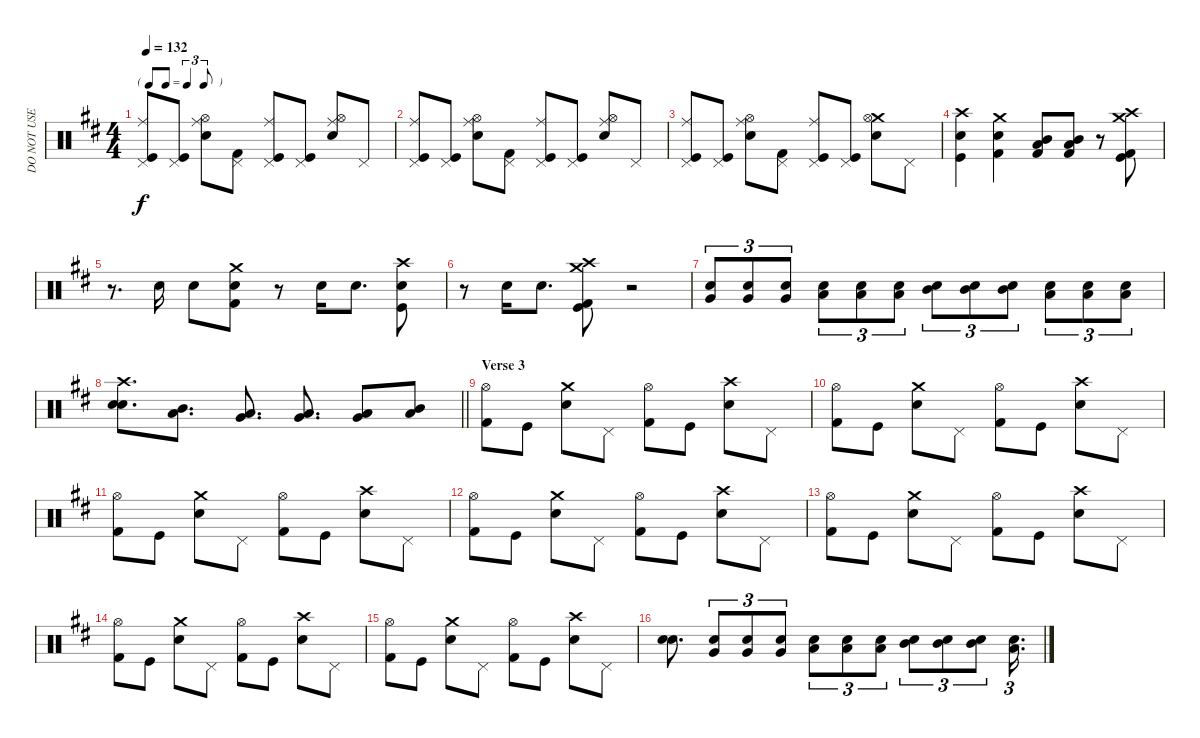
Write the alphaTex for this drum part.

\track ("DO NOT USE" "DO NOT USE") {solo instrument percussion}
\staff {score}
\articulation defaults
\ts (4 4)
\tf triplet8th
\tempo 132
\clef neutral
\ks d
("Ride (middle)" "Kick (hit)" "Pedal Hi-Hat (hit)").8{dy f} ("Kick (hit)" "Pedal Hi-Hat (hit)").8 ("Ride (middle)" "Snare (hit) 2" "Hi-Hat (open)").8 ("Kick (hit) 2" "Pedal Hi-Hat (hit)").8 ("Ride (middle)" "Kick (hit)" "Pedal Hi-Hat (hit)").8 ("Kick (hit)" "Pedal Hi-Hat (hit)").8 ("Ride (middle)" "Electric Snare (hit)" "Hi-Hat (open)").8 "Pedal Hi-Hat (hit)".8 |
("Ride (middle)" "Kick (hit)" "Pedal Hi-Hat (hit)").8 ("Kick (hit)" "Pedal Hi-Hat (hit)").8 ("Ride (middle)" "Snare (hit) 2" "Hi-Hat (open)").8 ("Kick (hit) 2" "Pedal Hi-Hat (hit)").8 ("Ride (middle)" "Kick (hit)" "Pedal Hi-Hat (hit)").8 ("Kick (hit)" "Pedal Hi-Hat (hit)").8 ("Ride (middle)" "Electric Snare (hit)" "Hi-Hat (open)").8 "Pedal Hi-Hat (hit)".8 |
("Ride (middle)" "Kick (hit)" "Pedal Hi-Hat (hit)").8 ("Kick (hit)" "Pedal Hi-Hat (hit)").8 ("Ride (middle)" "Snare (hit) 2" "Hi-Hat (open)").8 ("Kick (hit) 2" "Pedal Hi-Hat (hit)").8 ("Ride (middle)" "Kick (hit)" "Pedal Hi-Hat (hit)").8 ("Kick (hit)" "Pedal Hi-Hat (hit)").8 ("Crash medium (hit)" "Electric Snare (hit)" "Hi-Hat (open)").8 "Pedal Hi-Hat (hit)".8 |
("Crash high (hit)" "Snare (hit) 2" "Kick (hit)").4 ("Crash medium (hit)" "Electric Snare (hit)" "Kick (hit) 2").4 ("Kick (hit) 2" "Mid Tom (hit)" "Low Tom (hit)").8 ("Kick (hit) 2" "Mid Tom (hit)" "Low Tom (hit)").8 r.8 ("Kick (hit)" "Crash high (hit)" "Crash medium (hit)" "Kick (hit) 2").8 |
r.8{d} "Electric Snare (hit)".16 "Snare (hit) 2".8 ("Snare (hit) 2" "Kick (hit) 2" "Crash medium (hit)").8 r.8 "Electric Snare (hit)".16 "Snare (hit) 2".8{d} ("Electric Snare (hit)" "Kick (hit)" "Crash high (hit)").8 |
r.8 "Electric Snare (hit)".16 "Snare (hit) 2".8{d} ("Crash high (hit)" "Crash medium (hit)" "Kick (hit) 2" "Kick (hit)").8 r.2 |
("Electric Snare (hit)" "Very Low Tom (hit)").8{tu (3 2)} ("Electric Snare (hit)" "Very Low Tom (hit)").8{tu (3 2)} ("Electric Snare (hit)" "Very Low Tom (hit)").8{tu (3 2)} ("Snare (hit) 2" "Low Tom (hit)").8{tu (3 2)} ("Snare (hit) 2" "Low Tom (hit)").8{tu (3 2)} ("Snare (hit) 2" "Low Tom (hit)").8{tu (3 2)} ("Electric Snare (hit)" "Mid Tom (hit)").8{tu (3 2)} ("Electric Snare (hit)" "Mid Tom (hit)").8{tu (3 2)} ("Electric Snare (hit)" "Mid Tom (hit)").8{tu (3 2)} ("Electric Snare (hit)" "Low Floor Tom (hit)").8{tu (3 2)} ("Electric Snare (hit)" "Low Floor Tom (hit)").8{tu (3 2)} ("Electric Snare (hit)" "Low Floor Tom (hit)").8{tu (3 2)} |
\barLineRight lightlight
("Crash high (hit)" "Snare (hit) 2" "Electric Snare (hit)").8{d} ("Low Tom (hit)" "Mid Tom (hit)").8{d} ("Very Low Tom (hit)" "Low Tom (hit)").8{d} ("Low Tom (hit)" "Very Low Tom (hit)").8{d} ("Low Tom (hit)" "Very Low Tom (hit)").8 ("Mid Tom (hit)" "Low Floor Tom (hit)").8 |
\section ("" "Verse 3")
("Hi-Hat (open)" "Kick (hit) 2").8 "Kick (hit)".8 ("Crash medium (hit)" "Electric Snare (hit)").8 "Pedal Hi-Hat (hit)".8 ("Hi-Hat (open)" "Kick (hit) 2").8 "Kick (hit)".8 ("Crash high (hit)" "Electric Snare (hit)").8 "Pedal Hi-Hat (hit)".8 |
("Hi-Hat (open)" "Kick (hit) 2").8 "Kick (hit)".8 ("Crash medium (hit)" "Electric Snare (hit)").8 "Pedal Hi-Hat (hit)".8 ("Hi-Hat (open)" "Kick (hit) 2").8 "Kick (hit)".8 ("Crash high (hit)" "Electric Snare (hit)").8 "Pedal Hi-Hat (hit)".8 |
("Hi-Hat (open)" "Kick (hit) 2").8 "Kick (hit)".8 ("Crash medium (hit)" "Electric Snare (hit)").8 "Pedal Hi-Hat (hit)".8 ("Hi-Hat (open)" "Kick (hit) 2").8 "Kick (hit)".8 ("Crash high (hit)" "Electric Snare (hit)").8 "Pedal Hi-Hat (hit)".8 |
("Hi-Hat (open)" "Kick (hit) 2").8 "Kick (hit)".8 ("Crash medium (hit)" "Electric Snare (hit)").8 "Pedal Hi-Hat (hit)".8 ("Hi-Hat (open)" "Kick (hit) 2").8 "Kick (hit)".8 ("Crash high (hit)" "Electric Snare (hit)").8 "Pedal Hi-Hat (hit)".8 |
("Hi-Hat (open)" "Kick (hit) 2").8 "Kick (hit)".8 ("Crash medium (hit)" "Electric Snare (hit)").8 "Pedal Hi-Hat (hit)".8 ("Hi-Hat (open)" "Kick (hit) 2").8 "Kick (hit)".8 ("Crash high (hit)" "Electric Snare (hit)").8 "Pedal Hi-Hat (hit)".8 |
("Hi-Hat (open)" "Kick (hit) 2").8 "Kick (hit)".8 ("Crash medium (hit)" "Electric Snare (hit)").8 "Pedal Hi-Hat (hit)".8 ("Hi-Hat (open)" "Kick (hit) 2").8 "Kick (hit)".8 ("Crash high (hit)" "Electric Snare (hit)").8 "Pedal Hi-Hat (hit)".8 |
("Hi-Hat (open)" "Kick (hit) 2").8 "Kick (hit)".8 ("Crash medium (hit)" "Electric Snare (hit)").8 "Pedal Hi-Hat (hit)".8 ("Hi-Hat (open)" "Kick (hit) 2").8 "Kick (hit)".8 ("Crash high (hit)" "Electric Snare (hit)").8 "Pedal Hi-Hat (hit)".8 |
("Snare (hit) 2" "Electric Snare (hit)").8{d} ("Electric Snare (hit)" "Very Low Tom (hit)").8{tu (3 2)} ("Electric Snare (hit)" "Very Low Tom (hit)").8{tu (3 2)} ("Electric Snare (hit)" "Very Low Tom (hit)").8{tu (3 2)} ("Snare (hit) 2" "Low Tom (hit)").8{tu (3 2)} ("Snare (hit) 2" "Low Tom (hit)").8{tu (3 2)} ("Snare (hit) 2" "Low Tom (hit)").8{tu (3 2)} ("Electric Snare (hit)" "Mid Tom (hit)").8{tu (3 2)} ("Electric Snare (hit)" "Mid Tom (hit)").8{tu (3 2)} ("Electric Snare (hit)" "Mid Tom (hit)").8{tu (3 2)} ("Electric Snare (hit)" "Low Floor Tom (hit)").16{d tu (3 2)}
